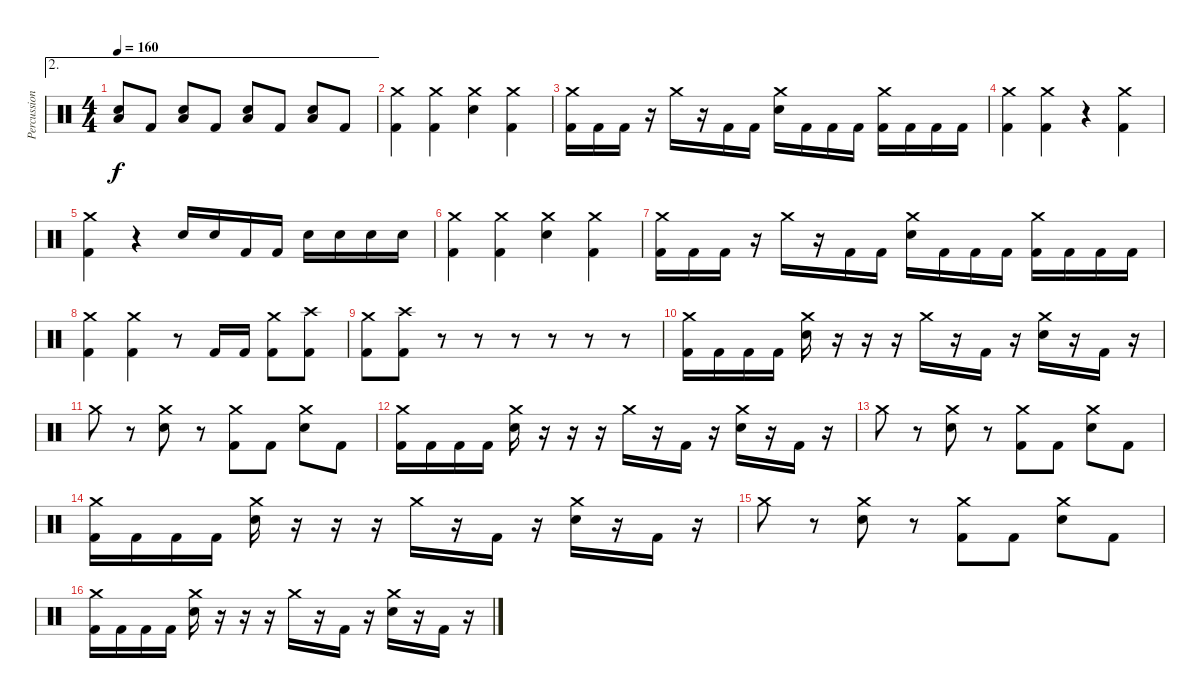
\track ("Percussions" "Percussion") {instrument percussion}
\staff {score}
\articulation defaults
\ae 2
\ts (4 4)
\tempo 160
\clef neutral
\ks c
("Electric Snare (hit)" "Low Tom (hit)").8{dy f} "Kick (hit) 2".8 ("Electric Snare (hit)" "Low Tom (hit)").8 "Kick (hit) 2".8 ("Electric Snare (hit)" "Low Tom (hit)").8 "Kick (hit) 2".8 ("Electric Snare (hit)" "Low Tom (hit)").8 "Kick (hit) 2".8 |
("Kick (hit) 2" "Crash medium (hit)").4 ("Kick (hit) 2" "Crash medium (hit)").4 ("Electric Snare (hit)" "Crash medium (hit)").4 ("Kick (hit) 2" "Crash medium (hit)").4 |
("Kick (hit) 2" "Crash medium (hit)").16 "Kick (hit) 2".16 "Kick (hit) 2".16 r.16 "Crash medium (hit)".16 r.16 "Kick (hit) 2".16 "Kick (hit) 2".16 ("Electric Snare (hit)" "Crash medium (hit)").16 "Kick (hit) 2".16 "Kick (hit) 2".16 "Kick (hit) 2".16 ("Kick (hit) 2" "Crash medium (hit)").16 "Kick (hit) 2".16 "Kick (hit) 2".16 "Kick (hit) 2".16 |
("Kick (hit) 2" "Crash medium (hit)").4 ("Kick (hit) 2" "Crash medium (hit)").4 r.4 ("Kick (hit) 2" "Crash medium (hit)").4 |
("Kick (hit) 2" "Crash medium (hit)").4 r.4 "Electric Snare (hit)".16 "Electric Snare (hit)".16 "Kick (hit) 2".16 "Kick (hit) 2".16 "Electric Snare (hit)".16 "Electric Snare (hit)".16 "Electric Snare (hit)".16 "Electric Snare (hit)".16 |
("Kick (hit) 2" "Crash medium (hit)").4 ("Kick (hit) 2" "Crash medium (hit)").4 ("Electric Snare (hit)" "Crash medium (hit)").4 ("Kick (hit) 2" "Crash medium (hit)").4 |
("Kick (hit) 2" "Crash medium (hit)").16 "Kick (hit) 2".16 "Kick (hit) 2".16 r.16 "Crash medium (hit)".16 r.16 "Kick (hit) 2".16 "Kick (hit) 2".16 ("Electric Snare (hit)" "Crash medium (hit)").16 "Kick (hit) 2".16 "Kick (hit) 2".16 "Kick (hit) 2".16 ("Kick (hit) 2" "Crash medium (hit)").16 "Kick (hit) 2".16 "Kick (hit) 2".16 "Kick (hit) 2".16 |
("Kick (hit) 2" "Crash medium (hit)").4 ("Kick (hit) 2" "Crash medium (hit)").4 r.8 "Kick (hit) 2".16 "Kick (hit) 2".16 ("Kick (hit) 2" "Crash medium (hit)").8 ("Kick (hit) 2" "Crash high (hit)").8 |
("Kick (hit) 2" "Crash medium (hit)").8 ("Kick (hit) 2" "Crash high (hit)").8 r.8 r.8 r.8 r.8 r.8 r.8 |
("Kick (hit) 2" "Crash medium (hit)").16 "Kick (hit) 2".16 "Kick (hit) 2".16 "Kick (hit) 2".16 ("Electric Snare (hit)" "Crash medium (hit)").16 r.16 r.16 r.16 "Crash medium (hit)".16 r.16 "Kick (hit) 2".16 r.16 ("Electric Snare (hit)" "Crash medium (hit)").16 r.16 "Kick (hit) 2".16 r.16 |
"Crash medium (hit)".8 r.8 ("Electric Snare (hit)" "Crash medium (hit)").8 r.8 ("Kick (hit) 2" "Crash medium (hit)").8 "Kick (hit) 2".8 ("Electric Snare (hit)" "Crash medium (hit)").8 "Kick (hit) 2".8 |
("Kick (hit) 2" "Crash medium (hit)").16 "Kick (hit) 2".16 "Kick (hit) 2".16 "Kick (hit) 2".16 ("Electric Snare (hit)" "Crash medium (hit)").16 r.16 r.16 r.16 "Crash medium (hit)".16 r.16 "Kick (hit) 2".16 r.16 ("Electric Snare (hit)" "Crash medium (hit)").16 r.16 "Kick (hit) 2".16 r.16 |
"Crash medium (hit)".8 r.8 ("Electric Snare (hit)" "Crash medium (hit)").8 r.8 ("Kick (hit) 2" "Crash medium (hit)").8 "Kick (hit) 2".8 ("Electric Snare (hit)" "Crash medium (hit)").8 "Kick (hit) 2".8 |
("Kick (hit) 2" "Crash medium (hit)").16 "Kick (hit) 2".16 "Kick (hit) 2".16 "Kick (hit) 2".16 ("Electric Snare (hit)" "Crash medium (hit)").16 r.16 r.16 r.16 "Crash medium (hit)".16 r.16 "Kick (hit) 2".16 r.16 ("Electric Snare (hit)" "Crash medium (hit)").16 r.16 "Kick (hit) 2".16 r.16 |
"Crash medium (hit)".8 r.8 ("Electric Snare (hit)" "Crash medium (hit)").8 r.8 ("Kick (hit) 2" "Crash medium (hit)").8 "Kick (hit) 2".8 ("Electric Snare (hit)" "Crash medium (hit)").8 "Kick (hit) 2".8 |
("Kick (hit) 2" "Crash medium (hit)").16 "Kick (hit) 2".16 "Kick (hit) 2".16 "Kick (hit) 2".16 ("Electric Snare (hit)" "Crash medium (hit)").16 r.16 r.16 r.16 "Crash medium (hit)".16 r.16 "Kick (hit) 2".16 r.16 ("Electric Snare (hit)" "Crash medium (hit)").16 r.16 "Kick (hit) 2".16 r.16
